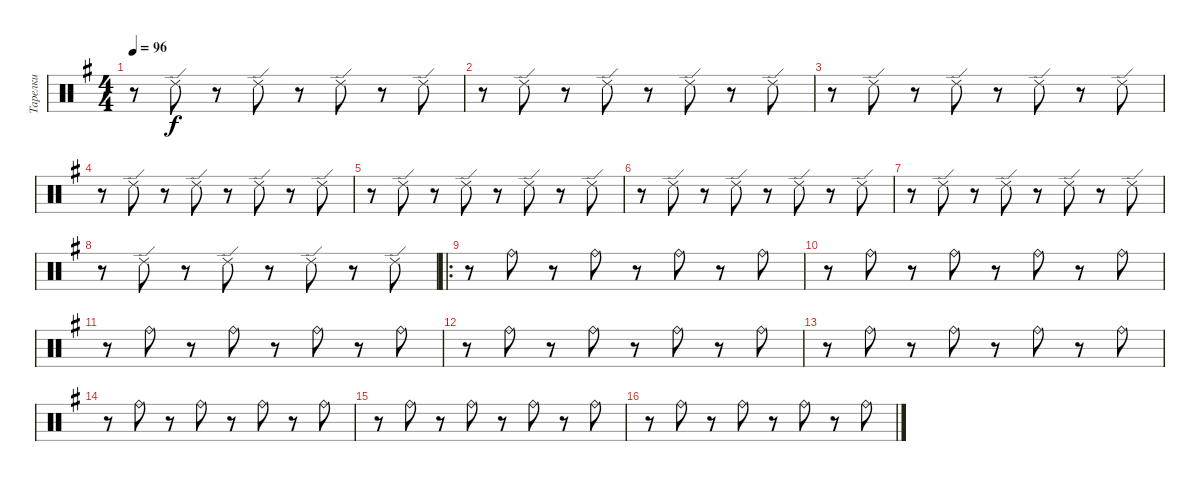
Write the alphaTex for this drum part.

\track ("Тарелки" "Тарелки") {instrument percussion}
\staff {score}
\articulation defaults
\ts (4 4)
\tempo 96
\clef neutral
\ks eminor
r.8{dy f} "Ride (edge) 2".8 r.8 "Ride (edge) 2".8 r.8 "Ride (edge) 2".8 r.8 "Ride (edge) 2".8 |
r.8 "Ride (edge) 2".8 r.8 "Ride (edge) 2".8 r.8 "Ride (edge) 2".8 r.8 "Ride (edge) 2".8 |
r.8 "Ride (edge) 2".8 r.8 "Ride (edge) 2".8 r.8 "Ride (edge) 2".8 r.8 "Ride (edge) 2".8 |
r.8 "Ride (edge) 2".8 r.8 "Ride (edge) 2".8 r.8 "Ride (edge) 2".8 r.8 "Ride (edge) 2".8 |
r.8 "Ride (edge) 2".8 r.8 "Ride (edge) 2".8 r.8 "Ride (edge) 2".8 r.8 "Ride (edge) 2".8 |
r.8 "Ride (edge) 2".8 r.8 "Ride (edge) 2".8 r.8 "Ride (edge) 2".8 r.8 "Ride (edge) 2".8 |
r.8 "Ride (edge) 2".8 r.8 "Ride (edge) 2".8 r.8 "Ride (edge) 2".8 r.8 "Ride (edge) 2".8 |
r.8 "Ride (edge) 2".8 r.8 "Ride (edge) 2".8 r.8 "Ride (edge) 2".8 r.8 "Ride (edge) 2".8 |
\ro
r.8 "Ride (bell)".8 r.8 "Ride (bell)".8 r.8 "Ride (bell)".8 r.8 "Ride (bell)".8 |
r.8 "Ride (bell)".8 r.8 "Ride (bell)".8 r.8 "Ride (bell)".8 r.8 "Ride (bell)".8 |
r.8 "Ride (bell)".8 r.8 "Ride (bell)".8 r.8 "Ride (bell)".8 r.8 "Ride (bell)".8 |
r.8 "Ride (bell)".8 r.8 "Ride (bell)".8 r.8 "Ride (bell)".8 r.8 "Ride (bell)".8 |
r.8 "Ride (bell)".8 r.8 "Ride (bell)".8 r.8 "Ride (bell)".8 r.8 "Ride (bell)".8 |
r.8 "Ride (bell)".8 r.8 "Ride (bell)".8 r.8 "Ride (bell)".8 r.8 "Ride (bell)".8 |
r.8 "Ride (bell)".8 r.8 "Ride (bell)".8 r.8 "Ride (bell)".8 r.8 "Ride (bell)".8 |
r.8 "Ride (bell)".8 r.8 "Ride (bell)".8 r.8 "Ride (bell)".8 r.8 "Ride (bell)".8
